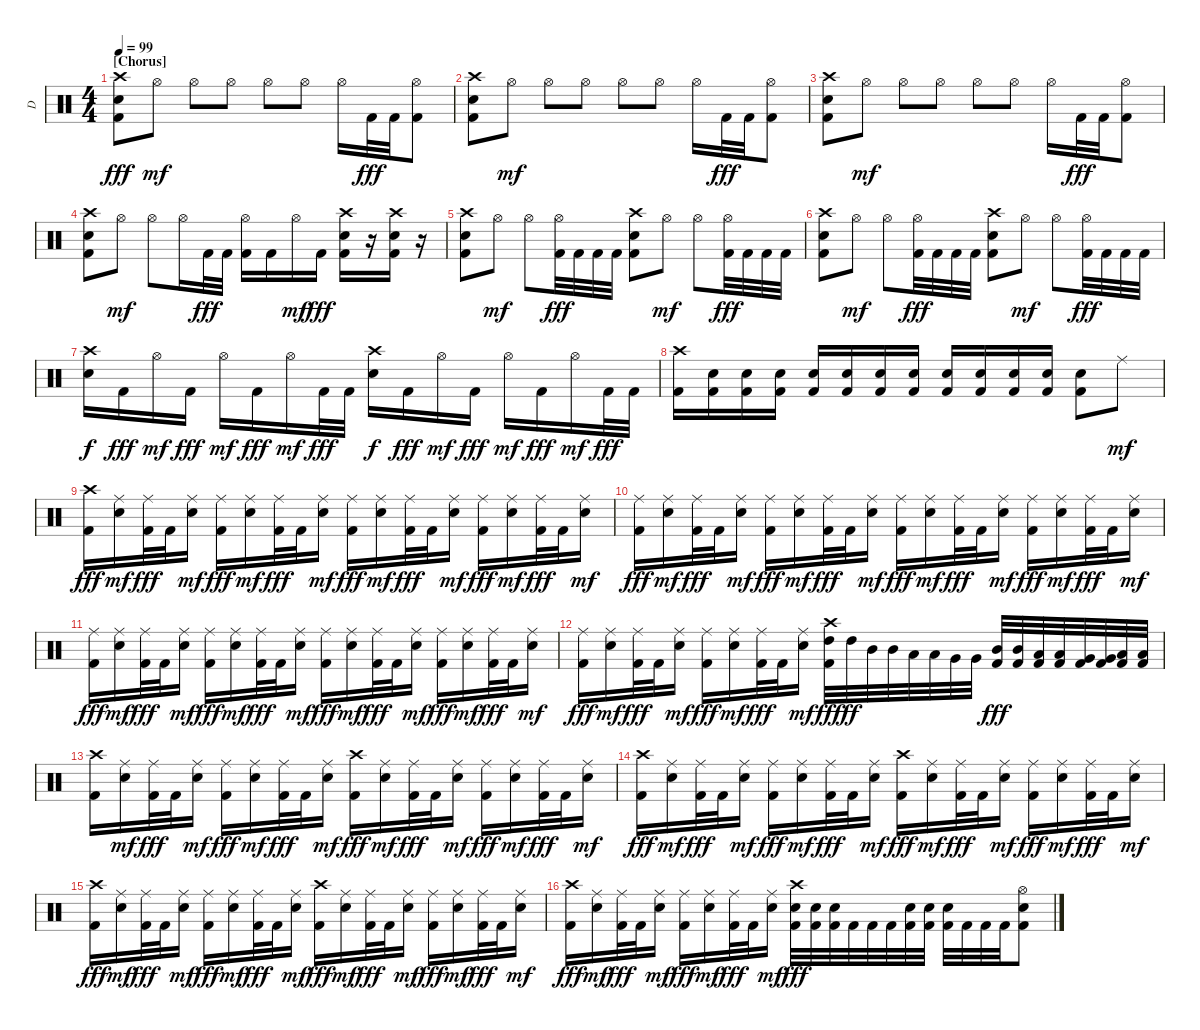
\track ("D" "D") {instrument percussion}
\staff {score}
\articulation defaults
\ts (4 4)
\section ("" "[Chorus]")
\tempo 99
\clef neutral
\ks c
("Crash high (hit)" "Snare (hit) 2" "Kick (hit) 2").8{dy fff} "Hi-Hat (open)".8{dy mf} "Hi-Hat (open)".8 "Hi-Hat (open)".8 "Hi-Hat (open)".8 "Hi-Hat (open)".8 "Hi-Hat (open)".16 "Kick (hit) 2".32{dy fff} "Kick (hit) 2".32 ("Hi-Hat (open)" "Kick (hit) 2").8 |
("Crash high (hit)" "Snare (hit) 2" "Kick (hit) 2").8 "Hi-Hat (open)".8{dy mf} "Hi-Hat (open)".8 "Hi-Hat (open)".8 "Hi-Hat (open)".8 "Hi-Hat (open)".8 "Hi-Hat (open)".16 "Kick (hit) 2".32{dy fff} "Kick (hit) 2".32 ("Hi-Hat (open)" "Kick (hit) 2").8 |
("Crash high (hit)" "Snare (hit) 2" "Kick (hit) 2").8 "Hi-Hat (open)".8{dy mf} "Hi-Hat (open)".8 "Hi-Hat (open)".8 "Hi-Hat (open)".8 "Hi-Hat (open)".8 "Hi-Hat (open)".16 "Kick (hit) 2".32{dy fff} "Kick (hit) 2".32 ("Hi-Hat (open)" "Kick (hit) 2").8 |
("Crash high (hit)" "Snare (hit) 2" "Kick (hit) 2").8 "Hi-Hat (open)".8{dy mf} "Hi-Hat (open)".8 "Hi-Hat (open)".16 "Kick (hit) 2".32{dy fff} "Kick (hit) 2".32 ("Hi-Hat (open)" "Kick (hit) 2").16 "Kick (hit) 2".16 "Hi-Hat (open)".16{dy mf} "Kick (hit) 2".16{dy fff} ("Crash high (hit)" "Snare (hit) 2" "Kick (hit) 2").16 r.16 ("Crash high (hit)" "Snare (hit) 2" "Kick (hit) 2").16 r.16 |
("Crash high (hit)" "Snare (hit) 2" "Kick (hit) 2").8 "Hi-Hat (open)".8{dy mf} "Hi-Hat (open)".8 ("Hi-Hat (open)" "Kick (hit) 2").32{dy fff} "Kick (hit) 2".32 "Kick (hit) 2".32 "Kick (hit) 2".32 ("Crash high (hit)" "Snare (hit) 2" "Kick (hit) 2").8 "Hi-Hat (open)".8{dy mf} "Hi-Hat (open)".8 ("Hi-Hat (open)" "Kick (hit) 2").32{dy fff} "Kick (hit) 2".32 "Kick (hit) 2".32 "Kick (hit) 2".32 |
("Crash high (hit)" "Snare (hit) 2" "Kick (hit) 2").8 "Hi-Hat (open)".8{dy mf} "Hi-Hat (open)".8 ("Hi-Hat (open)" "Kick (hit) 2").32{dy fff} "Kick (hit) 2".32 "Kick (hit) 2".32 "Kick (hit) 2".32 ("Crash high (hit)" "Snare (hit) 2" "Kick (hit) 2").8 "Hi-Hat (open)".8{dy mf} "Hi-Hat (open)".8 ("Hi-Hat (open)" "Kick (hit) 2").32{dy fff} "Kick (hit) 2".32 "Kick (hit) 2".32 "Kick (hit) 2".32 |
("Crash high (hit)" "Snare (hit) 2").16{dy f} "Kick (hit) 2".16{dy fff} "Hi-Hat (open)".16{dy mf} "Kick (hit) 2".16{dy fff} "Hi-Hat (open)".16{dy mf} "Kick (hit) 2".16{dy fff} "Hi-Hat (open)".16{dy mf} "Kick (hit) 2".32{dy fff} "Kick (hit) 2".32 ("Crash high (hit)" "Snare (hit) 2").16{dy f} "Kick (hit) 2".16{dy fff} "Hi-Hat (open)".16{dy mf} "Kick (hit) 2".16{dy fff} "Hi-Hat (open)".16{dy mf} "Kick (hit) 2".16{dy fff} "Hi-Hat (open)".16{dy mf} "Kick (hit) 2".32{dy fff} "Kick (hit) 2".32 |
("Crash high (hit)" "Kick (hit) 2").16 ("Snare (hit) 2" "Kick (hit) 2").16 ("Snare (hit) 2" "Kick (hit) 2").16 ("Snare (hit) 2" "Kick (hit) 2").16 ("Snare (hit) 2" "Kick (hit) 2").16 ("Snare (hit) 2" "Kick (hit) 2").16 ("Snare (hit) 2" "Kick (hit) 2").16 ("Snare (hit) 2" "Kick (hit) 2").16 ("Snare (hit) 2" "Kick (hit) 2").16 ("Snare (hit) 2" "Kick (hit) 2").16 ("Snare (hit) 2" "Kick (hit) 2").16 ("Snare (hit) 2" "Kick (hit) 2").16 ("Snare (hit) 2" "Kick (hit) 2").8 "Ride (middle)".8{dy mf} |
\section ("" "")
("Crash high (hit)" "Kick (hit) 2").16{dy fff} ("Ride (middle)" "Snare (hit) 2").16{dy mf} ("Ride (middle)" "Kick (hit) 2").32{dy fff} "Kick (hit) 2".32 ("Ride (middle)" "Snare (hit) 2").16{dy mf} ("Ride (middle)" "Kick (hit) 2").16{dy fff} ("Ride (middle)" "Snare (hit) 2").16{dy mf} ("Ride (middle)" "Kick (hit) 2").32{dy fff} "Kick (hit) 2".32 ("Ride (middle)" "Snare (hit) 2").16{dy mf} ("Ride (middle)" "Kick (hit) 2").16{dy fff} ("Ride (middle)" "Snare (hit) 2").16{dy mf} ("Ride (middle)" "Kick (hit) 2").32{dy fff} "Kick (hit) 2".32 ("Ride (middle)" "Snare (hit) 2").16{dy mf} ("Ride (middle)" "Kick (hit) 2").16{dy fff} ("Ride (middle)" "Snare (hit) 2").16{dy mf} ("Ride (middle)" "Kick (hit) 2").32{dy fff} "Kick (hit) 2".32 ("Ride (middle)" "Snare (hit) 2").16{dy mf} |
("Ride (middle)" "Kick (hit) 2").16{dy fff} ("Ride (middle)" "Snare (hit) 2").16{dy mf} ("Ride (middle)" "Kick (hit) 2").32{dy fff} "Kick (hit) 2".32 ("Ride (middle)" "Snare (hit) 2").16{dy mf} ("Ride (middle)" "Kick (hit) 2").16{dy fff} ("Ride (middle)" "Snare (hit) 2").16{dy mf} ("Ride (middle)" "Kick (hit) 2").32{dy fff} "Kick (hit) 2".32 ("Ride (middle)" "Snare (hit) 2").16{dy mf} ("Ride (middle)" "Kick (hit) 2").16{dy fff} ("Ride (middle)" "Snare (hit) 2").16{dy mf} ("Ride (middle)" "Kick (hit) 2").32{dy fff} "Kick (hit) 2".32 ("Ride (middle)" "Snare (hit) 2").16{dy mf} ("Ride (middle)" "Kick (hit) 2").16{dy fff} ("Ride (middle)" "Snare (hit) 2").16{dy mf} ("Ride (middle)" "Kick (hit) 2").32{dy fff} "Kick (hit) 2".32 ("Ride (middle)" "Snare (hit) 2").16{dy mf} |
("Ride (middle)" "Kick (hit) 2").16{dy fff} ("Ride (middle)" "Snare (hit) 2").16{dy mf} ("Ride (middle)" "Kick (hit) 2").32{dy fff} "Kick (hit) 2".32 ("Ride (middle)" "Snare (hit) 2").16{dy mf} ("Ride (middle)" "Kick (hit) 2").16{dy fff} ("Ride (middle)" "Snare (hit) 2").16{dy mf} ("Ride (middle)" "Kick (hit) 2").32{dy fff} "Kick (hit) 2".32 ("Ride (middle)" "Snare (hit) 2").16{dy mf} ("Ride (middle)" "Kick (hit) 2").16{dy fff} ("Ride (middle)" "Snare (hit) 2").16{dy mf} ("Ride (middle)" "Kick (hit) 2").32{dy fff} "Kick (hit) 2".32 ("Ride (middle)" "Snare (hit) 2").16{dy mf} ("Ride (middle)" "Kick (hit) 2").16{dy fff} ("Ride (middle)" "Snare (hit) 2").16{dy mf} ("Ride (middle)" "Kick (hit) 2").32{dy fff} "Kick (hit) 2".32 ("Ride (middle)" "Snare (hit) 2").16{dy mf} |
("Ride (middle)" "Kick (hit) 2").16{dy fff} ("Ride (middle)" "Snare (hit) 2").16{dy mf} ("Ride (middle)" "Kick (hit) 2").32{dy fff} "Kick (hit) 2".32 ("Ride (middle)" "Snare (hit) 2").16{dy mf} ("Ride (middle)" "Kick (hit) 2").16{dy fff} ("Ride (middle)" "Snare (hit) 2").16{dy mf} ("Ride (middle)" "Kick (hit) 2").32{dy fff} "Kick (hit) 2".32 ("Ride (middle)" "Snare (hit) 2").16{dy mf} ("Crash high (hit)" "High Tom (hit)" "Kick (hit) 2").32{dy fff} "High Tom (hit)".32{dy ff} "Mid Tom (hit)".32 "Mid Tom (hit)".32 "Low Tom (hit)".32 "Low Tom (hit)".32 "Very Low Tom (hit)".32 "Very Low Tom (hit)".32 ("Mid Tom (hit)" "Kick (hit) 2").32{dy fff} ("Mid Tom (hit)" "Kick (hit) 2").32 ("Low Tom (hit)" "Kick (hit) 2").32 ("Low Tom (hit)" "Kick (hit) 2").32 ("Very Low Tom (hit)" "Kick (hit) 2").32 ("Very Low Tom (hit)" "Kick (hit) 2").32 ("Low Floor Tom (hit)" "Kick (hit) 2").32 ("Low Floor Tom (hit)" "Kick (hit) 2").32 |
\section ("" "")
("Crash high (hit)" "Kick (hit) 2").16 ("Ride (middle)" "Snare (hit) 2").16{dy mf} ("Ride (middle)" "Kick (hit) 2").32{dy fff} "Kick (hit) 2".32 ("Ride (middle)" "Snare (hit) 2").16{dy mf} ("Ride (middle)" "Kick (hit) 2").16{dy fff} ("Ride (middle)" "Snare (hit) 2").16{dy mf} ("Ride (middle)" "Kick (hit) 2").32{dy fff} "Kick (hit) 2".32 ("Ride (middle)" "Snare (hit) 2").16{dy mf} ("Crash high (hit)" "Kick (hit) 2").16{dy fff} ("Ride (middle)" "Snare (hit) 2").16{dy mf} ("Ride (middle)" "Kick (hit) 2").32{dy fff} "Kick (hit) 2".32 ("Ride (middle)" "Snare (hit) 2").16{dy mf} ("Ride (middle)" "Kick (hit) 2").16{dy fff} ("Ride (middle)" "Snare (hit) 2").16{dy mf} ("Ride (middle)" "Kick (hit) 2").32{dy fff} "Kick (hit) 2".32 ("Ride (middle)" "Snare (hit) 2").16{dy mf} |
("Crash high (hit)" "Kick (hit) 2").16{dy fff} ("Ride (middle)" "Snare (hit) 2").16{dy mf} ("Ride (middle)" "Kick (hit) 2").32{dy fff} "Kick (hit) 2".32 ("Ride (middle)" "Snare (hit) 2").16{dy mf} ("Ride (middle)" "Kick (hit) 2").16{dy fff} ("Ride (middle)" "Snare (hit) 2").16{dy mf} ("Ride (middle)" "Kick (hit) 2").32{dy fff} "Kick (hit) 2".32 ("Ride (middle)" "Snare (hit) 2").16{dy mf} ("Crash high (hit)" "Kick (hit) 2").16{dy fff} ("Ride (middle)" "Snare (hit) 2").16{dy mf} ("Ride (middle)" "Kick (hit) 2").32{dy fff} "Kick (hit) 2".32 ("Ride (middle)" "Snare (hit) 2").16{dy mf} ("Ride (middle)" "Kick (hit) 2").16{dy fff} ("Ride (middle)" "Snare (hit) 2").16{dy mf} ("Ride (middle)" "Kick (hit) 2").32{dy fff} "Kick (hit) 2".32 ("Ride (middle)" "Snare (hit) 2").16{dy mf} |
("Crash high (hit)" "Kick (hit) 2").16{dy fff} ("Ride (middle)" "Snare (hit) 2").16{dy mf} ("Ride (middle)" "Kick (hit) 2").32{dy fff} "Kick (hit) 2".32 ("Ride (middle)" "Snare (hit) 2").16{dy mf} ("Ride (middle)" "Kick (hit) 2").16{dy fff} ("Ride (middle)" "Snare (hit) 2").16{dy mf} ("Ride (middle)" "Kick (hit) 2").32{dy fff} "Kick (hit) 2".32 ("Ride (middle)" "Snare (hit) 2").16{dy mf} ("Crash high (hit)" "Kick (hit) 2").16{dy fff} ("Ride (middle)" "Snare (hit) 2").16{dy mf} ("Ride (middle)" "Kick (hit) 2").32{dy fff} "Kick (hit) 2".32 ("Ride (middle)" "Snare (hit) 2").16{dy mf} ("Ride (middle)" "Kick (hit) 2").16{dy fff} ("Ride (middle)" "Snare (hit) 2").16{dy mf} ("Ride (middle)" "Kick (hit) 2").32{dy fff} "Kick (hit) 2".32 ("Ride (middle)" "Snare (hit) 2").16{dy mf} |
("Crash high (hit)" "Kick (hit) 2").16{dy fff} ("Ride (middle)" "Snare (hit) 2").16{dy mf} ("Ride (middle)" "Kick (hit) 2").32{dy fff} "Kick (hit) 2".32 ("Ride (middle)" "Snare (hit) 2").16{dy mf} ("Ride (middle)" "Kick (hit) 2").16{dy fff} ("Ride (middle)" "Snare (hit) 2").16{dy mf} ("Ride (middle)" "Kick (hit) 2").32{dy fff} "Kick (hit) 2".32 ("Ride (middle)" "Snare (hit) 2").16{dy mf} ("Crash high (hit)" "Snare (hit) 2" "Kick (hit) 2").32{dy fff} ("Snare (hit) 2" "Kick (hit) 2").32 ("Snare (hit) 2" "Kick (hit) 2").32 "Kick (hit) 2".32 "Kick (hit) 2".32 "Kick (hit) 2".32 ("Snare (hit) 2" "Kick (hit) 2").32 ("Snare (hit) 2" "Kick (hit) 2").32 ("Snare (hit) 2" "Kick (hit) 2").32 "Kick (hit) 2".32 "Kick (hit) 2".32 "Kick (hit) 2".32 ("Hi-Hat (open)" "Snare (hit) 2" "Kick (hit) 2").8
